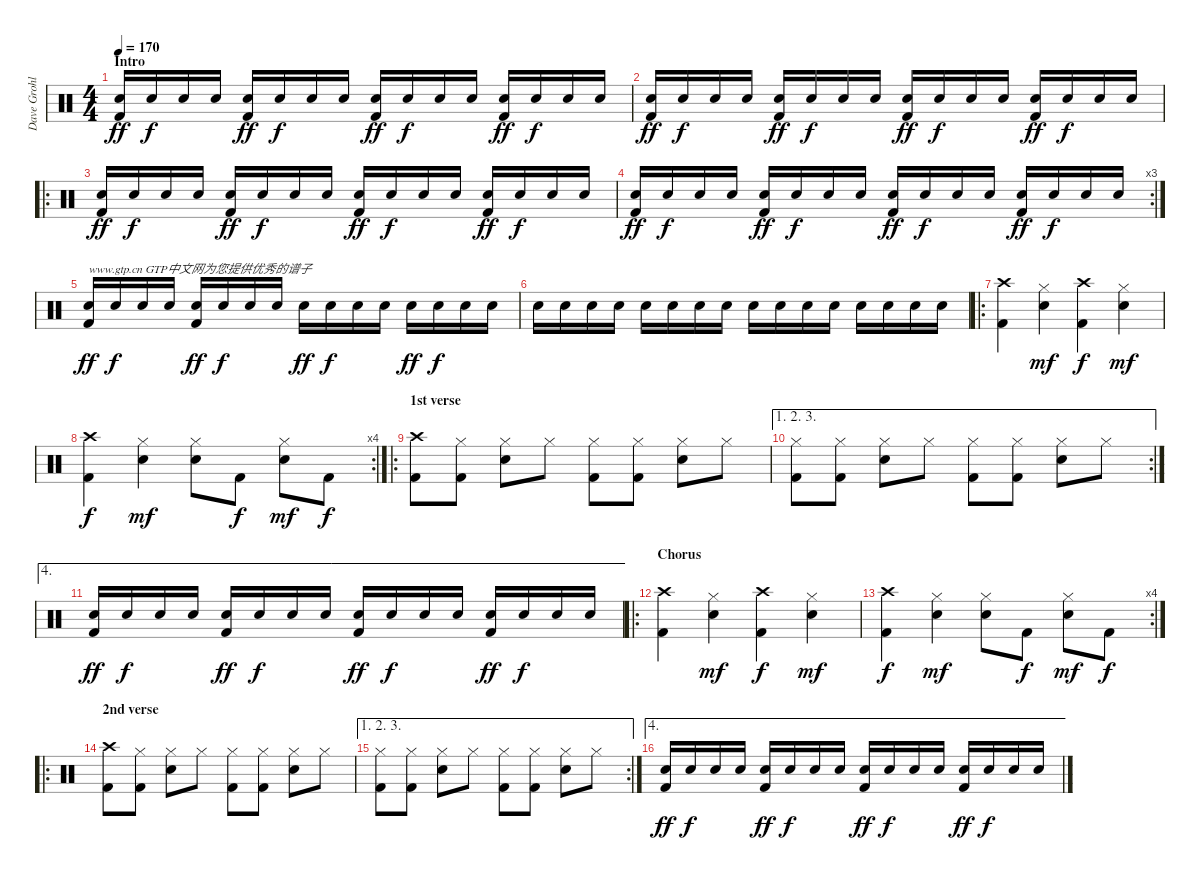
\track ("Dave Grohl" "Dave Grohl") {instrument percussion}
\staff {score}
\articulation defaults
\ts (4 4)
\section ("" "Intro")
\tempo 170
\clef neutral
\ks c
("Electric Snare (hit)" "Kick (hit) 2").16{dy ff volume 12} "Electric Snare (hit)".16{dy f} "Electric Snare (hit)".16 "Electric Snare (hit)".16 ("Electric Snare (hit)" "Kick (hit) 2").16{dy ff} "Electric Snare (hit)".16{dy f} "Electric Snare (hit)".16 "Electric Snare (hit)".16 ("Electric Snare (hit)" "Kick (hit) 2").16{dy ff} "Electric Snare (hit)".16{dy f} "Electric Snare (hit)".16 "Electric Snare (hit)".16 ("Electric Snare (hit)" "Kick (hit) 2").16{dy ff} "Electric Snare (hit)".16{dy f} "Electric Snare (hit)".16 "Electric Snare (hit)".16 |
("Electric Snare (hit)" "Kick (hit) 2").16{dy ff} "Electric Snare (hit)".16{dy f} "Electric Snare (hit)".16 "Electric Snare (hit)".16 ("Electric Snare (hit)" "Kick (hit) 2").16{dy ff} "Electric Snare (hit)".16{dy f} "Electric Snare (hit)".16 "Electric Snare (hit)".16 ("Electric Snare (hit)" "Kick (hit) 2").16{dy ff} "Electric Snare (hit)".16{dy f} "Electric Snare (hit)".16 "Electric Snare (hit)".16 ("Electric Snare (hit)" "Kick (hit) 2").16{dy ff} "Electric Snare (hit)".16{dy f} "Electric Snare (hit)".16 "Electric Snare (hit)".16 |
\ro
("Electric Snare (hit)" "Kick (hit) 2").16{dy ff} "Electric Snare (hit)".16{dy f} "Electric Snare (hit)".16 "Electric Snare (hit)".16 ("Electric Snare (hit)" "Kick (hit) 2").16{dy ff} "Electric Snare (hit)".16{dy f} "Electric Snare (hit)".16 "Electric Snare (hit)".16 ("Electric Snare (hit)" "Kick (hit) 2").16{dy ff} "Electric Snare (hit)".16{dy f} "Electric Snare (hit)".16 "Electric Snare (hit)".16 ("Electric Snare (hit)" "Kick (hit) 2").16{dy ff} "Electric Snare (hit)".16{dy f} "Electric Snare (hit)".16 "Electric Snare (hit)".16 |
\rc 3
("Electric Snare (hit)" "Kick (hit) 2").16{dy ff} "Electric Snare (hit)".16{dy f} "Electric Snare (hit)".16 "Electric Snare (hit)".16 ("Electric Snare (hit)" "Kick (hit) 2").16{dy ff} "Electric Snare (hit)".16{dy f} "Electric Snare (hit)".16 "Electric Snare (hit)".16 ("Electric Snare (hit)" "Kick (hit) 2").16{dy ff} "Electric Snare (hit)".16{dy f} "Electric Snare (hit)".16 "Electric Snare (hit)".16 ("Electric Snare (hit)" "Kick (hit) 2").16{dy ff} "Electric Snare (hit)".16{dy f} "Electric Snare (hit)".16 "Electric Snare (hit)".16 |
("Electric Snare (hit)" "Kick (hit) 2").16{txt "www.gtp.cn GTP中文网为您提供优秀的谱子" dy ff} "Electric Snare (hit)".16{dy f} "Electric Snare (hit)".16 "Electric Snare (hit)".16 ("Electric Snare (hit)" "Kick (hit) 2").16{dy ff} "Electric Snare (hit)".16{dy f} "Electric Snare (hit)".16 "Electric Snare (hit)".16 "Electric Snare (hit)".16{dy ff} "Electric Snare (hit)".16{dy f} "Electric Snare (hit)".16 "Electric Snare (hit)".16 "Electric Snare (hit)".16{dy ff} "Electric Snare (hit)".16{dy f} "Electric Snare (hit)".16 "Electric Snare (hit)".16 |
"Electric Snare (hit)".16 "Electric Snare (hit)".16 "Electric Snare (hit)".16 "Electric Snare (hit)".16 "Electric Snare (hit)".16 "Electric Snare (hit)".16 "Electric Snare (hit)".16 "Electric Snare (hit)".16 "Electric Snare (hit)".16 "Electric Snare (hit)".16 "Electric Snare (hit)".16 "Electric Snare (hit)".16 "Electric Snare (hit)".16 "Electric Snare (hit)".16 "Electric Snare (hit)".16 "Electric Snare (hit)".16 |
\ro
("Crash high (hit)" "Kick (hit) 2").4{volume 13} ("Hi-Hat (closed)" "Electric Snare (hit)").4{dy mf} ("Crash high (hit)" "Kick (hit) 2").4{dy f} ("Hi-Hat (closed)" "Electric Snare (hit)").4{dy mf} |
\rc 4
("Crash high (hit)" "Kick (hit) 2").4{dy f} ("Hi-Hat (closed)" "Electric Snare (hit)").4{dy mf} ("Hi-Hat (closed)" "Electric Snare (hit)").8 "Kick (hit) 2".8{dy f} ("Hi-Hat (closed)" "Electric Snare (hit)").8{dy mf} "Kick (hit) 2".8{dy f} |
\ro
\section ("" "1st verse")
("Crash high (hit)" "Kick (hit) 2").8 ("Hi-Hat (closed)" "Kick (hit) 2").8 ("Hi-Hat (closed)" "Electric Snare (hit)").8 "Hi-Hat (closed)".8 ("Hi-Hat (closed)" "Kick (hit) 2").8 ("Hi-Hat (closed)" "Kick (hit) 2").8 ("Hi-Hat (closed)" "Electric Snare (hit)").8 "Hi-Hat (closed)".8 |
\ae (1 2 3)
\rc 2
("Hi-Hat (closed)" "Kick (hit) 2").8 ("Hi-Hat (closed)" "Kick (hit) 2").8 ("Hi-Hat (closed)" "Electric Snare (hit)").8 "Hi-Hat (closed)".8 ("Hi-Hat (closed)" "Kick (hit) 2").8 ("Hi-Hat (closed)" "Kick (hit) 2").8 ("Hi-Hat (closed)" "Electric Snare (hit)").8 "Hi-Hat (closed)".8 |
\ae 4
("Electric Snare (hit)" "Kick (hit) 2").16{dy ff} "Electric Snare (hit)".16{dy f} "Electric Snare (hit)".16 "Electric Snare (hit)".16 ("Electric Snare (hit)" "Kick (hit) 2").16{dy ff} "Electric Snare (hit)".16{dy f} "Electric Snare (hit)".16 "Electric Snare (hit)".16 ("Electric Snare (hit)" "Kick (hit) 2").16{dy ff} "Electric Snare (hit)".16{dy f} "Electric Snare (hit)".16 "Electric Snare (hit)".16 ("Electric Snare (hit)" "Kick (hit) 2").16{dy ff} "Electric Snare (hit)".16{dy f} "Electric Snare (hit)".16 "Electric Snare (hit)".16 |
\ro
\section ("" "Chorus")
("Crash high (hit)" "Kick (hit) 2").4{volume 13} ("Hi-Hat (closed)" "Electric Snare (hit)").4{dy mf} ("Crash high (hit)" "Kick (hit) 2").4{dy f} ("Hi-Hat (closed)" "Electric Snare (hit)").4{dy mf} |
\rc 4
("Crash high (hit)" "Kick (hit) 2").4{dy f} ("Hi-Hat (closed)" "Electric Snare (hit)").4{dy mf} ("Hi-Hat (closed)" "Electric Snare (hit)").8 "Kick (hit) 2".8{dy f} ("Hi-Hat (closed)" "Electric Snare (hit)").8{dy mf} "Kick (hit) 2".8{dy f} |
\ro
\section ("" "2nd verse")
("Crash high (hit)" "Kick (hit) 2").8 ("Hi-Hat (closed)" "Kick (hit) 2").8 ("Hi-Hat (closed)" "Electric Snare (hit)").8 "Hi-Hat (closed)".8 ("Hi-Hat (closed)" "Kick (hit) 2").8 ("Hi-Hat (closed)" "Kick (hit) 2").8 ("Hi-Hat (closed)" "Electric Snare (hit)").8 "Hi-Hat (closed)".8 |
\ae (1 2 3)
\rc 2
("Hi-Hat (closed)" "Kick (hit) 2").8 ("Hi-Hat (closed)" "Kick (hit) 2").8 ("Hi-Hat (closed)" "Electric Snare (hit)").8 "Hi-Hat (closed)".8 ("Hi-Hat (closed)" "Kick (hit) 2").8 ("Hi-Hat (closed)" "Kick (hit) 2").8 ("Hi-Hat (closed)" "Electric Snare (hit)").8 "Hi-Hat (closed)".8 |
\ae 4
("Electric Snare (hit)" "Kick (hit) 2").16{dy ff} "Electric Snare (hit)".16{dy f} "Electric Snare (hit)".16 "Electric Snare (hit)".16 ("Electric Snare (hit)" "Kick (hit) 2").16{dy ff} "Electric Snare (hit)".16{dy f} "Electric Snare (hit)".16 "Electric Snare (hit)".16 ("Electric Snare (hit)" "Kick (hit) 2").16{dy ff} "Electric Snare (hit)".16{dy f} "Electric Snare (hit)".16 "Electric Snare (hit)".16 ("Electric Snare (hit)" "Kick (hit) 2").16{dy ff} "Electric Snare (hit)".16{dy f} "Electric Snare (hit)".16 "Electric Snare (hit)".16
